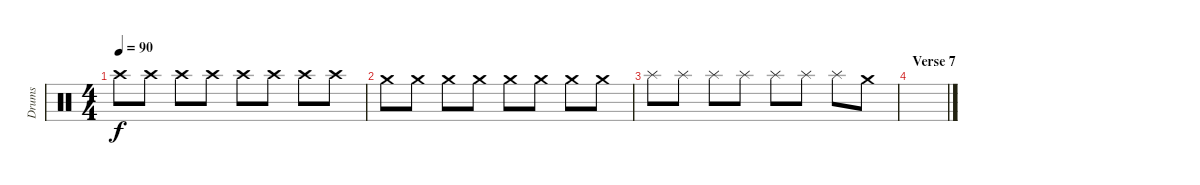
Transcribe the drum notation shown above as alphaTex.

\track ("Drums" "Drums") {instrument percussion}
\staff {score}
\articulation defaults
\ts (4 4)
\tempo 90
\clef neutral
\ks c "Crash high (hit)".8{dy f} "Crash high (hit)".8 "Crash high (hit)".8 "Crash high (hit)".8 "Crash high (hit)".8 "Crash high (hit)".8 "Crash high (hit)".8 "Crash high (hit)".8
|
"Crash medium (hit)".8 "Crash medium (hit)".8 "Crash medium (hit)".8 "Crash medium (hit)".8 "Crash medium (hit)".8 "Crash medium (hit)".8 "Crash medium (hit)".8 "Crash medium (hit)".8 |
"Splash (hit)".8 "Splash (hit)".8 "Splash (hit)".8 "Splash (hit)".8 "Splash (hit)".8 "Splash (hit)".8 "Splash (hit)".8 "Crash medium (hit)".8 |
\section ("" "Verse 7")
